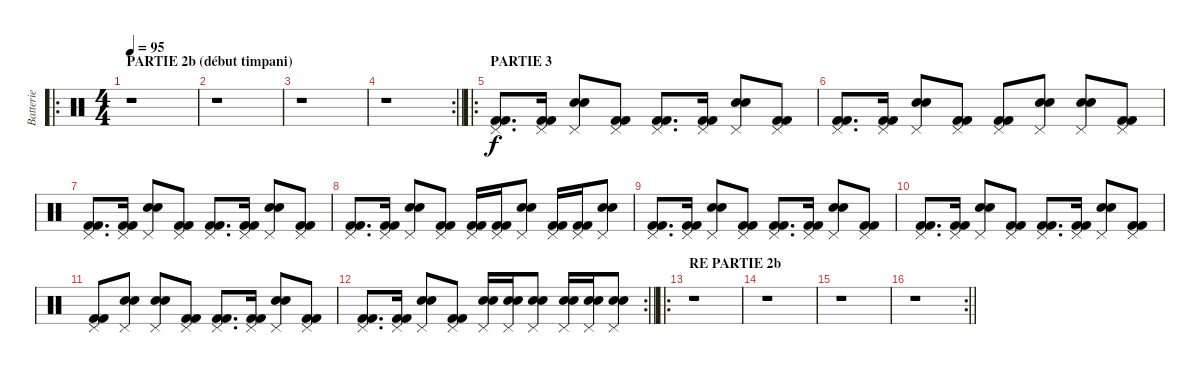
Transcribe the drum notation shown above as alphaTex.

\track ("Batterie" "Batterie") {instrument percussion}
\staff {score}
\articulation defaults
\ro
\ts (4 4)
\section ("" "PARTIE 2b (début timpani)")
\tempo 95
\clef neutral
\ks c
r.1{dy f} |
r.1 |
r.1 |
\rc 2
\barLineRight lightlight
r.1 |
\ro
\section ("" "PARTIE 3")
("Pedal Hi-Hat (hit)" "Kick (hit) 2" "Kick (hit) 2").8{d} ("Pedal Hi-Hat (hit)" "Kick (hit) 2" "Kick (hit) 2").16 ("Pedal Hi-Hat (hit)" "Electric Snare (hit)" "Electric Snare (hit)").8 ("Pedal Hi-Hat (hit)" "Kick (hit) 2" "Kick (hit) 2").8 ("Pedal Hi-Hat (hit)" "Kick (hit) 2" "Kick (hit) 2").8{d} ("Pedal Hi-Hat (hit)" "Kick (hit) 2" "Kick (hit) 2").16 ("Pedal Hi-Hat (hit)" "Electric Snare (hit)" "Electric Snare (hit)").8 ("Pedal Hi-Hat (hit)" "Kick (hit) 2" "Kick (hit) 2").8 |
("Pedal Hi-Hat (hit)" "Kick (hit) 2" "Kick (hit) 2").8{d} ("Pedal Hi-Hat (hit)" "Kick (hit) 2" "Kick (hit) 2").16 ("Pedal Hi-Hat (hit)" "Electric Snare (hit)" "Electric Snare (hit)").8 ("Pedal Hi-Hat (hit)" "Kick (hit) 2" "Kick (hit) 2").8 ("Pedal Hi-Hat (hit)" "Kick (hit) 2" "Kick (hit) 2").8 ("Pedal Hi-Hat (hit)" "Electric Snare (hit)" "Electric Snare (hit)").8 ("Pedal Hi-Hat (hit)" "Electric Snare (hit)" "Electric Snare (hit)").8 ("Pedal Hi-Hat (hit)" "Kick (hit) 2" "Kick (hit) 2").8 |
("Pedal Hi-Hat (hit)" "Kick (hit) 2" "Kick (hit) 2").8{d} ("Pedal Hi-Hat (hit)" "Kick (hit) 2" "Kick (hit) 2").16 ("Pedal Hi-Hat (hit)" "Electric Snare (hit)" "Electric Snare (hit)").8 ("Pedal Hi-Hat (hit)" "Kick (hit) 2" "Kick (hit) 2").8 ("Pedal Hi-Hat (hit)" "Kick (hit) 2" "Kick (hit) 2").8{d} ("Pedal Hi-Hat (hit)" "Kick (hit) 2" "Kick (hit) 2").16 ("Pedal Hi-Hat (hit)" "Electric Snare (hit)" "Electric Snare (hit)").8 ("Pedal Hi-Hat (hit)" "Kick (hit) 2" "Kick (hit) 2").8 |
("Pedal Hi-Hat (hit)" "Kick (hit) 2" "Kick (hit) 2").8{d} ("Pedal Hi-Hat (hit)" "Kick (hit) 2" "Kick (hit) 2").16 ("Pedal Hi-Hat (hit)" "Electric Snare (hit)" "Electric Snare (hit)").8 ("Pedal Hi-Hat (hit)" "Kick (hit) 2" "Kick (hit) 2").8 ("Pedal Hi-Hat (hit)" "Kick (hit) 2" "Kick (hit) 2").16 ("Pedal Hi-Hat (hit)" "Kick (hit) 2" "Kick (hit) 2").16 ("Pedal Hi-Hat (hit)" "Electric Snare (hit)" "Electric Snare (hit)").8 ("Pedal Hi-Hat (hit)" "Kick (hit) 2" "Kick (hit) 2").16 ("Pedal Hi-Hat (hit)" "Kick (hit) 2" "Kick (hit) 2").16 ("Pedal Hi-Hat (hit)" "Electric Snare (hit)" "Electric Snare (hit)").8 |
("Pedal Hi-Hat (hit)" "Kick (hit) 2" "Kick (hit) 2").8{d} ("Pedal Hi-Hat (hit)" "Kick (hit) 2" "Kick (hit) 2").16 ("Pedal Hi-Hat (hit)" "Electric Snare (hit)" "Electric Snare (hit)").8 ("Pedal Hi-Hat (hit)" "Kick (hit) 2" "Kick (hit) 2").8 ("Pedal Hi-Hat (hit)" "Kick (hit) 2" "Kick (hit) 2").8{d} ("Pedal Hi-Hat (hit)" "Kick (hit) 2" "Kick (hit) 2").16 ("Pedal Hi-Hat (hit)" "Electric Snare (hit)" "Electric Snare (hit)").8 ("Pedal Hi-Hat (hit)" "Kick (hit) 2" "Kick (hit) 2").8 |
("Pedal Hi-Hat (hit)" "Kick (hit) 2" "Kick (hit) 2").8{d} ("Pedal Hi-Hat (hit)" "Kick (hit) 2" "Kick (hit) 2").16 ("Pedal Hi-Hat (hit)" "Electric Snare (hit)" "Electric Snare (hit)").8 ("Pedal Hi-Hat (hit)" "Kick (hit) 2" "Kick (hit) 2").8 ("Pedal Hi-Hat (hit)" "Kick (hit) 2" "Kick (hit) 2").8{d} ("Pedal Hi-Hat (hit)" "Kick (hit) 2" "Kick (hit) 2").16 ("Pedal Hi-Hat (hit)" "Electric Snare (hit)" "Electric Snare (hit)").8 ("Pedal Hi-Hat (hit)" "Kick (hit) 2" "Kick (hit) 2").8 |
("Pedal Hi-Hat (hit)" "Kick (hit) 2" "Kick (hit) 2").8 ("Pedal Hi-Hat (hit)" "Electric Snare (hit)" "Electric Snare (hit)").8 ("Pedal Hi-Hat (hit)" "Electric Snare (hit)" "Electric Snare (hit)").8 ("Pedal Hi-Hat (hit)" "Kick (hit) 2" "Kick (hit) 2").8 ("Pedal Hi-Hat (hit)" "Kick (hit) 2" "Kick (hit) 2").8{d} ("Pedal Hi-Hat (hit)" "Kick (hit) 2" "Kick (hit) 2").16 ("Pedal Hi-Hat (hit)" "Electric Snare (hit)" "Electric Snare (hit)").8 ("Pedal Hi-Hat (hit)" "Kick (hit) 2" "Kick (hit) 2").8 |
\rc 2
\barLineRight lightlight
("Pedal Hi-Hat (hit)" "Kick (hit) 2" "Kick (hit) 2").8{d} ("Pedal Hi-Hat (hit)" "Kick (hit) 2" "Kick (hit) 2").16 ("Pedal Hi-Hat (hit)" "Electric Snare (hit)" "Electric Snare (hit)").8 ("Pedal Hi-Hat (hit)" "Kick (hit) 2" "Kick (hit) 2").8 ("Pedal Hi-Hat (hit)" "Electric Snare (hit)" "Electric Snare (hit)").16 ("Pedal Hi-Hat (hit)" "Electric Snare (hit)" "Electric Snare (hit)").16 ("Pedal Hi-Hat (hit)" "Electric Snare (hit)" "Electric Snare (hit)").8 ("Pedal Hi-Hat (hit)" "Electric Snare (hit)" "Electric Snare (hit)").16 ("Pedal Hi-Hat (hit)" "Electric Snare (hit)" "Electric Snare (hit)").16 ("Pedal Hi-Hat (hit)" "Electric Snare (hit)" "Electric Snare (hit)").8 |
\ro
\section ("" "RE PARTIE 2b")
r.1 |
r.1 |
r.1 |
\rc 2
\barLineRight lightlight
r.1
